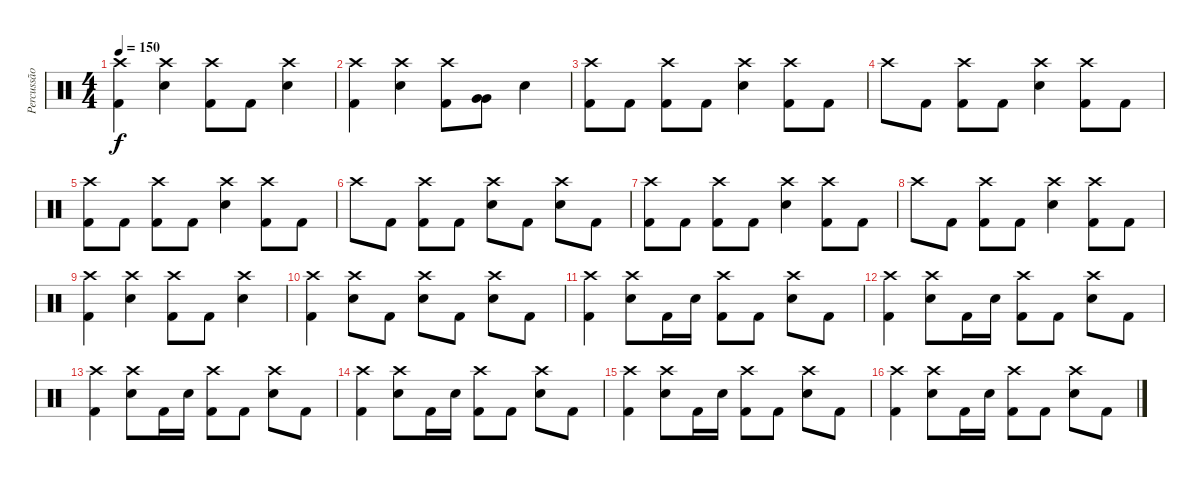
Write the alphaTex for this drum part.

\track ("Percussão" "Percussão") {instrument percussion}
\staff {score}
\articulation defaults
\ts (4 4)
\tempo 150
\clef neutral
\ks c
("Crash high (hit)" "Kick (hit) 2").4{dy f} ("Crash high (hit)" "Electric Snare (hit)").4 ("Crash high (hit)" "Kick (hit) 2").8 "Kick (hit) 2".8 ("Crash high (hit)" "Electric Snare (hit)").4 |
("Crash high (hit)" "Kick (hit) 2").4 ("Crash high (hit)" "Electric Snare (hit)").4 ("Crash high (hit)" "Kick (hit) 2").8 ("Very Low Tom (hit)" "Very Low Tom (hit)").8 "Electric Snare (hit)".4 |
("Crash high (hit)" "Kick (hit) 2").8 "Kick (hit) 2".8 ("Crash high (hit)" "Kick (hit) 2").8 "Kick (hit) 2".8 ("Crash high (hit)" "Electric Snare (hit)").4 ("Crash high (hit)" "Kick (hit) 2").8 "Kick (hit) 2".8 |
"Crash high (hit)".8 "Kick (hit) 2".8 ("Crash high (hit)" "Kick (hit) 2").8 "Kick (hit) 2".8 ("Crash high (hit)" "Electric Snare (hit)").4 ("Crash high (hit)" "Kick (hit) 2").8 "Kick (hit) 2".8 |
("Crash high (hit)" "Kick (hit) 2").8 "Kick (hit) 2".8 ("Crash high (hit)" "Kick (hit) 2").8 "Kick (hit) 2".8 ("Crash high (hit)" "Electric Snare (hit)").4 ("Crash high (hit)" "Kick (hit) 2").8 "Kick (hit) 2".8 |
"Crash high (hit)".8 "Kick (hit) 2".8 ("Crash high (hit)" "Kick (hit) 2").8 "Kick (hit) 2".8 ("Crash high (hit)" "Electric Snare (hit)").8 "Kick (hit) 2".8 ("Crash high (hit)" "Electric Snare (hit)").8 "Kick (hit) 2".8 |
("Crash high (hit)" "Kick (hit) 2").8 "Kick (hit) 2".8 ("Crash high (hit)" "Kick (hit) 2").8 "Kick (hit) 2".8 ("Crash high (hit)" "Electric Snare (hit)").4 ("Crash high (hit)" "Kick (hit) 2").8 "Kick (hit) 2".8 |
"Crash high (hit)".8 "Kick (hit) 2".8 ("Crash high (hit)" "Kick (hit) 2").8 "Kick (hit) 2".8 ("Crash high (hit)" "Electric Snare (hit)").4 ("Crash high (hit)" "Kick (hit) 2").8 "Kick (hit) 2".8 |
("Crash high (hit)" "Kick (hit) 2").4 ("Electric Snare (hit)" "Crash high (hit)").4 ("Crash high (hit)" "Kick (hit) 2").8 "Kick (hit) 2".8 ("Electric Snare (hit)" "Crash high (hit)").4 |
("Crash high (hit)" "Kick (hit) 2").4 ("Crash high (hit)" "Electric Snare (hit)").8 "Kick (hit) 2".8 ("Crash high (hit)" "Electric Snare (hit)").8 "Kick (hit) 2".8 ("Crash high (hit)" "Electric Snare (hit)").8 "Kick (hit) 2".8 |
("Crash high (hit)" "Kick (hit) 2").4 ("Crash high (hit)" "Electric Snare (hit)").8 "Kick (hit) 2".16 "Electric Snare (hit)".16 ("Crash high (hit)" "Kick (hit) 2").8 "Kick (hit) 2".8 ("Crash high (hit)" "Electric Snare (hit)").8 "Kick (hit) 2".8 |
("Crash high (hit)" "Kick (hit) 2").4 ("Crash high (hit)" "Electric Snare (hit)").8 "Kick (hit) 2".16 "Electric Snare (hit)".16 ("Crash high (hit)" "Kick (hit) 2").8 "Kick (hit) 2".8 ("Crash high (hit)" "Electric Snare (hit)").8 "Kick (hit) 2".8 |
("Crash high (hit)" "Kick (hit) 2").4 ("Crash high (hit)" "Electric Snare (hit)").8 "Kick (hit) 2".16 "Electric Snare (hit)".16 ("Crash high (hit)" "Kick (hit) 2").8 "Kick (hit) 2".8 ("Crash high (hit)" "Electric Snare (hit)").8 "Kick (hit) 2".8 |
("Crash high (hit)" "Kick (hit) 2").4 ("Crash high (hit)" "Electric Snare (hit)").8 "Kick (hit) 2".16 "Electric Snare (hit)".16 ("Crash high (hit)" "Kick (hit) 2").8 "Kick (hit) 2".8 ("Crash high (hit)" "Electric Snare (hit)").8 "Kick (hit) 2".8 |
("Crash high (hit)" "Kick (hit) 2").4 ("Crash high (hit)" "Electric Snare (hit)").8 "Kick (hit) 2".16 "Electric Snare (hit)".16 ("Crash high (hit)" "Kick (hit) 2").8 "Kick (hit) 2".8 ("Crash high (hit)" "Electric Snare (hit)").8 "Kick (hit) 2".8 |
("Crash high (hit)" "Kick (hit) 2").4 ("Crash high (hit)" "Electric Snare (hit)").8 "Kick (hit) 2".16 "Electric Snare (hit)".16 ("Crash high (hit)" "Kick (hit) 2").8 "Kick (hit) 2".8 ("Crash high (hit)" "Electric Snare (hit)").8 "Kick (hit) 2".8
